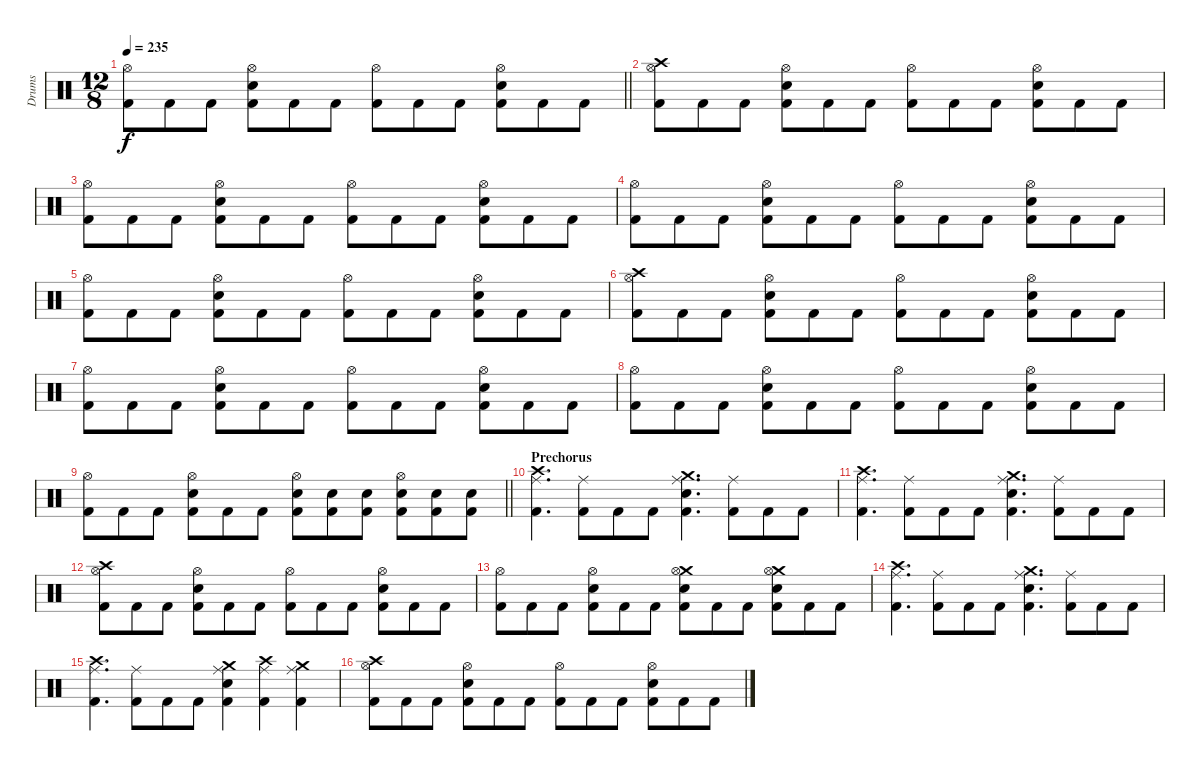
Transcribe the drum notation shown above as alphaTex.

\track ("Drums" "Drums") {instrument percussion}
\staff {score}
\articulation defaults
\ts (12 8)
\tempo 235
\clef neutral
\barLineRight lightlight
\ks c
("Hi-Hat (open)" "Kick (hit) 2").8{dy f} "Kick (hit) 2".8 "Kick (hit) 2".8 ("Hi-Hat (open)" "Snare (hit) 2" "Kick (hit) 2").8 "Kick (hit) 2".8 "Kick (hit) 2".8 ("Hi-Hat (open)" "Kick (hit) 2").8 "Kick (hit) 2".8 "Kick (hit) 2".8 ("Hi-Hat (open)" "Snare (hit) 2" "Kick (hit) 2").8 "Kick (hit) 2".8 "Kick (hit) 2".8 |
("Crash high (hit)" "Hi-Hat (open)" "Kick (hit) 2").8 "Kick (hit) 2".8 "Kick (hit) 2".8 ("Hi-Hat (open)" "Snare (hit) 2" "Kick (hit) 2").8 "Kick (hit) 2".8 "Kick (hit) 2".8 ("Hi-Hat (open)" "Kick (hit) 2").8 "Kick (hit) 2".8 "Kick (hit) 2".8 ("Hi-Hat (open)" "Snare (hit) 2" "Kick (hit) 2").8 "Kick (hit) 2".8 "Kick (hit) 2".8 |
("Hi-Hat (open)" "Kick (hit) 2").8 "Kick (hit) 2".8 "Kick (hit) 2".8 ("Hi-Hat (open)" "Snare (hit) 2" "Kick (hit) 2").8 "Kick (hit) 2".8 "Kick (hit) 2".8 ("Hi-Hat (open)" "Kick (hit) 2").8 "Kick (hit) 2".8 "Kick (hit) 2".8 ("Hi-Hat (open)" "Snare (hit) 2" "Kick (hit) 2").8 "Kick (hit) 2".8 "Kick (hit) 2".8 |
("Hi-Hat (open)" "Kick (hit) 2").8 "Kick (hit) 2".8 "Kick (hit) 2".8 ("Hi-Hat (open)" "Snare (hit) 2" "Kick (hit) 2").8 "Kick (hit) 2".8 "Kick (hit) 2".8 ("Hi-Hat (open)" "Kick (hit) 2").8 "Kick (hit) 2".8 "Kick (hit) 2".8 ("Hi-Hat (open)" "Snare (hit) 2" "Kick (hit) 2").8 "Kick (hit) 2".8 "Kick (hit) 2".8 |
("Hi-Hat (open)" "Kick (hit) 2").8 "Kick (hit) 2".8 "Kick (hit) 2".8 ("Hi-Hat (open)" "Snare (hit) 2" "Kick (hit) 2").8 "Kick (hit) 2".8 "Kick (hit) 2".8 ("Hi-Hat (open)" "Kick (hit) 2").8 "Kick (hit) 2".8 "Kick (hit) 2".8 ("Hi-Hat (open)" "Snare (hit) 2" "Kick (hit) 2").8 "Kick (hit) 2".8 "Kick (hit) 2".8 |
("Crash high (hit)" "Hi-Hat (open)" "Kick (hit) 2").8 "Kick (hit) 2".8 "Kick (hit) 2".8 ("Hi-Hat (open)" "Snare (hit) 2" "Kick (hit) 2").8 "Kick (hit) 2".8 "Kick (hit) 2".8 ("Hi-Hat (open)" "Kick (hit) 2").8 "Kick (hit) 2".8 "Kick (hit) 2".8 ("Hi-Hat (open)" "Snare (hit) 2" "Kick (hit) 2").8 "Kick (hit) 2".8 "Kick (hit) 2".8 |
("Hi-Hat (open)" "Kick (hit) 2").8 "Kick (hit) 2".8 "Kick (hit) 2".8 ("Hi-Hat (open)" "Snare (hit) 2" "Kick (hit) 2").8 "Kick (hit) 2".8 "Kick (hit) 2".8 ("Hi-Hat (open)" "Kick (hit) 2").8 "Kick (hit) 2".8 "Kick (hit) 2".8 ("Hi-Hat (open)" "Snare (hit) 2" "Kick (hit) 2").8 "Kick (hit) 2".8 "Kick (hit) 2".8 |
("Hi-Hat (open)" "Kick (hit) 2").8 "Kick (hit) 2".8 "Kick (hit) 2".8 ("Hi-Hat (open)" "Snare (hit) 2" "Kick (hit) 2").8 "Kick (hit) 2".8 "Kick (hit) 2".8 ("Hi-Hat (open)" "Kick (hit) 2").8 "Kick (hit) 2".8 "Kick (hit) 2".8 ("Hi-Hat (open)" "Snare (hit) 2" "Kick (hit) 2").8 "Kick (hit) 2".8 "Kick (hit) 2".8 |
\barLineRight lightlight
("Hi-Hat (open)" "Kick (hit) 2").8 "Kick (hit) 2".8 "Kick (hit) 2".8 ("Hi-Hat (open)" "Snare (hit) 2" "Kick (hit) 2").8 "Kick (hit) 2".8 "Kick (hit) 2".8 ("Hi-Hat (open)" "Snare (hit) 2" "Kick (hit) 2").8 ("Snare (hit) 2" "Kick (hit) 2").8 ("Snare (hit) 2" "Kick (hit) 2").8 ("Hi-Hat (open)" "Snare (hit) 2" "Kick (hit) 2").8 ("Snare (hit) 2" "Kick (hit) 2").8 ("Snare (hit) 2" "Kick (hit) 2").8 |
\section ("" "Prechorus")
("Crash high (hit)" "Ride (middle)" "Kick (hit) 2").4{d} ("Ride (middle)" "Kick (hit) 2").8 "Kick (hit) 2".8 "Kick (hit) 2".8 ("Crash medium (hit)" "Ride (middle)" "Snare (hit) 2" "Kick (hit) 2").4{d} ("Ride (middle)" "Kick (hit) 2").8 "Kick (hit) 2".8 "Kick (hit) 2".8 |
("Crash high (hit)" "Ride (middle)" "Kick (hit) 2").4{d} ("Ride (middle)" "Kick (hit) 2").8 "Kick (hit) 2".8 "Kick (hit) 2".8 ("Crash medium (hit)" "Ride (middle)" "Snare (hit) 2" "Kick (hit) 2").4{d} ("Ride (middle)" "Kick (hit) 2").8 "Kick (hit) 2".8 "Kick (hit) 2".8 |
("Crash high (hit)" "Hi-Hat (open)" "Kick (hit) 2").8 "Kick (hit) 2".8 "Kick (hit) 2".8 ("Hi-Hat (open)" "Snare (hit) 2" "Kick (hit) 2").8 "Kick (hit) 2".8 "Kick (hit) 2".8 ("Hi-Hat (open)" "Kick (hit) 2").8 "Kick (hit) 2".8 "Kick (hit) 2".8 ("Hi-Hat (open)" "Snare (hit) 2" "Kick (hit) 2").8 "Kick (hit) 2".8 "Kick (hit) 2".8 |
("Hi-Hat (open)" "Kick (hit) 2").8 "Kick (hit) 2".8 "Kick (hit) 2".8 ("Hi-Hat (open)" "Snare (hit) 2" "Kick (hit) 2").8 "Kick (hit) 2".8 "Kick (hit) 2".8 ("Crash medium (hit)" "Hi-Hat (open)" "Snare (hit) 2" "Kick (hit) 2").8 "Kick (hit) 2".8 "Kick (hit) 2".8 ("Crash medium (hit)" "Hi-Hat (open)" "Snare (hit) 2" "Kick (hit) 2").8 "Kick (hit) 2".8 "Kick (hit) 2".8 |
("Crash high (hit)" "Ride (middle)" "Kick (hit) 2").4{d} ("Ride (middle)" "Kick (hit) 2").8 "Kick (hit) 2".8 "Kick (hit) 2".8 ("Crash medium (hit)" "Ride (middle)" "Snare (hit) 2" "Kick (hit) 2").4{d} ("Ride (middle)" "Kick (hit) 2").8 "Kick (hit) 2".8 "Kick (hit) 2".8 |
("Crash high (hit)" "Ride (middle)" "Kick (hit) 2").4{d} ("Ride (middle)" "Kick (hit) 2").8 "Kick (hit) 2".8 "Kick (hit) 2".8 ("Crash medium (hit)" "Ride (middle)" "Snare (hit) 2" "Kick (hit) 2").4 ("Crash high (hit)" "Ride (middle)" "Kick (hit) 2").4 ("Crash medium (hit)" "Ride (middle)" "Kick (hit) 2").4 |
("Crash high (hit)" "Hi-Hat (open)" "Kick (hit) 2").8 "Kick (hit) 2".8 "Kick (hit) 2".8 ("Hi-Hat (open)" "Snare (hit) 2" "Kick (hit) 2").8 "Kick (hit) 2".8 "Kick (hit) 2".8 ("Hi-Hat (open)" "Kick (hit) 2").8 "Kick (hit) 2".8 "Kick (hit) 2".8 ("Hi-Hat (open)" "Snare (hit) 2" "Kick (hit) 2").8 "Kick (hit) 2".8 "Kick (hit) 2".8
